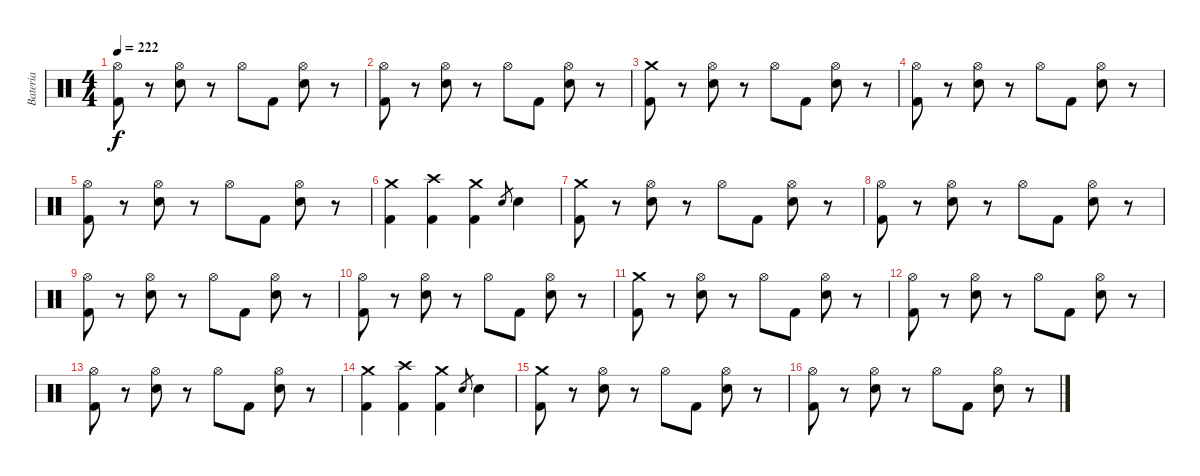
\track ("Bateria" "Bateria") {instrument percussion}
\staff {score}
\articulation defaults
\ts (4 4)
\tempo 222
\clef neutral
\ks c
("Hi-Hat (open)" "Kick (hit) 2").8{dy f} r.8 ("Hi-Hat (open)" "Electric Snare (hit)").8 r.8 "Hi-Hat (open)".8 "Kick (hit) 2".8 ("Hi-Hat (open)" "Electric Snare (hit)").8 r.8 |
("Hi-Hat (open)" "Kick (hit) 2").8 r.8 ("Hi-Hat (open)" "Electric Snare (hit)").8 r.8 "Hi-Hat (open)".8 "Kick (hit) 2".8 ("Hi-Hat (open)" "Electric Snare (hit)").8 r.8 |
("Crash medium (hit)" "Kick (hit) 2").8{volume 13} r.8 ("Hi-Hat (open)" "Electric Snare (hit)").8 r.8 "Hi-Hat (open)".8 "Kick (hit) 2".8 ("Hi-Hat (open)" "Electric Snare (hit)").8 r.8 |
("Hi-Hat (open)" "Kick (hit) 2").8 r.8 ("Hi-Hat (open)" "Electric Snare (hit)").8 r.8 "Hi-Hat (open)".8 "Kick (hit) 2".8 ("Hi-Hat (open)" "Electric Snare (hit)").8 r.8 |
("Hi-Hat (open)" "Kick (hit) 2").8 r.8 ("Hi-Hat (open)" "Electric Snare (hit)").8 r.8 "Hi-Hat (open)".8 "Kick (hit) 2".8 ("Hi-Hat (open)" "Electric Snare (hit)").8 r.8 |
("Crash medium (hit)" "Kick (hit) 2").4 ("Crash high (hit)" "Kick (hit) 2").4 ("Crash medium (hit)" "Kick (hit) 2").4 "Electric Snare (hit)".8{gr} "Electric Snare (hit)".4 |
("Crash medium (hit)" "Kick (hit) 2").8{volume 13} r.8 ("Hi-Hat (open)" "Electric Snare (hit)").8 r.8 "Hi-Hat (open)".8 "Kick (hit) 2".8 ("Hi-Hat (open)" "Electric Snare (hit)").8 r.8 |
("Hi-Hat (open)" "Kick (hit) 2").8 r.8 ("Hi-Hat (open)" "Electric Snare (hit)").8 r.8 "Hi-Hat (open)".8 "Kick (hit) 2".8 ("Hi-Hat (open)" "Electric Snare (hit)").8 r.8 |
("Hi-Hat (open)" "Kick (hit) 2").8 r.8 ("Hi-Hat (open)" "Electric Snare (hit)").8 r.8 "Hi-Hat (open)".8 "Kick (hit) 2".8 ("Hi-Hat (open)" "Electric Snare (hit)").8 r.8 |
("Hi-Hat (open)" "Kick (hit) 2").8 r.8 ("Hi-Hat (open)" "Electric Snare (hit)").8 r.8 "Hi-Hat (open)".8 "Kick (hit) 2".8 ("Hi-Hat (open)" "Electric Snare (hit)").8 r.8 |
("Crash medium (hit)" "Kick (hit) 2").8{volume 13} r.8 ("Hi-Hat (open)" "Electric Snare (hit)").8 r.8 "Hi-Hat (open)".8 "Kick (hit) 2".8 ("Hi-Hat (open)" "Electric Snare (hit)").8 r.8 |
("Hi-Hat (open)" "Kick (hit) 2").8 r.8 ("Hi-Hat (open)" "Electric Snare (hit)").8 r.8 "Hi-Hat (open)".8 "Kick (hit) 2".8 ("Hi-Hat (open)" "Electric Snare (hit)").8 r.8 |
("Hi-Hat (open)" "Kick (hit) 2").8 r.8 ("Hi-Hat (open)" "Electric Snare (hit)").8 r.8 "Hi-Hat (open)".8 "Kick (hit) 2".8 ("Hi-Hat (open)" "Electric Snare (hit)").8 r.8 |
("Crash medium (hit)" "Kick (hit) 2").4 ("Crash high (hit)" "Kick (hit) 2").4 ("Crash medium (hit)" "Kick (hit) 2").4 "Electric Snare (hit)".8{gr} "Electric Snare (hit)".4 |
("Crash medium (hit)" "Kick (hit) 2").8{volume 13} r.8 ("Hi-Hat (open)" "Electric Snare (hit)").8 r.8 "Hi-Hat (open)".8 "Kick (hit) 2".8 ("Hi-Hat (open)" "Electric Snare (hit)").8 r.8 |
("Hi-Hat (open)" "Kick (hit) 2").8 r.8 ("Hi-Hat (open)" "Electric Snare (hit)").8 r.8 "Hi-Hat (open)".8 "Kick (hit) 2".8 ("Hi-Hat (open)" "Electric Snare (hit)").8 r.8
